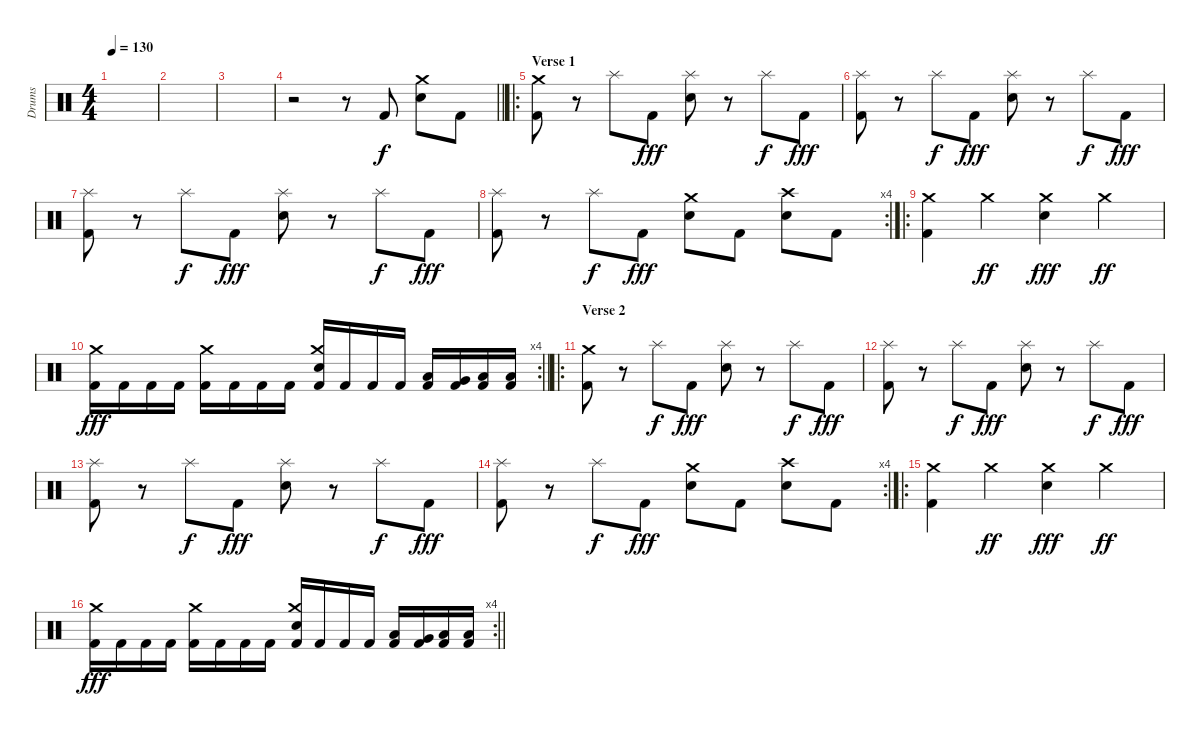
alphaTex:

\track ("Drums" "Drums") {instrument percussion}
\staff {score}
\articulation defaults
\ts (4 4)
\tempo 130
\clef neutral
\ks c
|
|
|
\barLineRight lightlight
r.2 r.8 "Kick (hit) 2".8 ("Crash medium (hit)" "Electric Snare (hit)").8 "Kick (hit) 2".8 |
\ro
\section ("" "Verse 1")
("Crash medium (hit)" "Kick (hit) 2").8 r.8 "Splash (hit)".8{dy f} "Kick (hit) 2".8{dy fff} ("Splash (hit)" "Electric Snare (hit)").8 r.8 "Splash (hit)".8{dy f} "Kick (hit) 2".8{dy fff} |
("Splash (hit)" "Kick (hit) 2").8 r.8 "Splash (hit)".8{dy f} "Kick (hit) 2".8{dy fff} ("Splash (hit)" "Electric Snare (hit)").8 r.8 "Splash (hit)".8{dy f} "Kick (hit) 2".8{dy fff} |
("Splash (hit)" "Kick (hit) 2").8 r.8 "Splash (hit)".8{dy f} "Kick (hit) 2".8{dy fff} ("Splash (hit)" "Electric Snare (hit)").8 r.8 "Splash (hit)".8{dy f} "Kick (hit) 2".8{dy fff} |
\rc 4
("Splash (hit)" "Kick (hit) 2").8 r.8 "Splash (hit)".8{dy f} "Kick (hit) 2".8{dy fff} ("Crash medium (hit)" "Electric Snare (hit)").8 "Kick (hit) 2".8 ("Crash high (hit)" "Electric Snare (hit)").8 "Kick (hit) 2".8 |
\ro
("Crash medium (hit)" "Kick (hit) 2").4 "Crash medium (hit)".4{dy ff} ("Crash medium (hit)" "Electric Snare (hit)").4{dy fff} "Crash medium (hit)".4{dy ff} |
\rc 4
\barLineRight lightlight
("Crash medium (hit)" "Kick (hit) 2").16{dy fff} "Kick (hit) 2".16 "Kick (hit) 2".16 "Kick (hit) 2".16 ("Crash medium (hit)" "Kick (hit) 2").16 "Kick (hit) 2".16 "Kick (hit) 2".16 "Kick (hit) 2".16 ("Crash medium (hit)" "Electric Snare (hit)" "Kick (hit) 2").16 "Kick (hit) 2".16 "Kick (hit) 2".16 "Kick (hit) 2".16 ("Low Tom (hit)" "Kick (hit) 2").16 ("Very Low Tom (hit)" "Kick (hit) 2").16 ("Low Tom (hit)" "Kick (hit) 2").16 ("Low Floor Tom (hit)" "Kick (hit) 2").16 |
\ro
\section ("" "Verse 2")
("Crash medium (hit)" "Kick (hit) 2").8 r.8 "Splash (hit)".8{dy f} "Kick (hit) 2".8{dy fff} ("Splash (hit)" "Electric Snare (hit)").8 r.8 "Splash (hit)".8{dy f} "Kick (hit) 2".8{dy fff} |
("Splash (hit)" "Kick (hit) 2").8 r.8 "Splash (hit)".8{dy f} "Kick (hit) 2".8{dy fff} ("Splash (hit)" "Electric Snare (hit)").8 r.8 "Splash (hit)".8{dy f} "Kick (hit) 2".8{dy fff} |
("Splash (hit)" "Kick (hit) 2").8 r.8 "Splash (hit)".8{dy f} "Kick (hit) 2".8{dy fff} ("Splash (hit)" "Electric Snare (hit)").8 r.8 "Splash (hit)".8{dy f} "Kick (hit) 2".8{dy fff} |
\rc 4
("Splash (hit)" "Kick (hit) 2").8 r.8 "Splash (hit)".8{dy f} "Kick (hit) 2".8{dy fff} ("Crash medium (hit)" "Electric Snare (hit)").8 "Kick (hit) 2".8 ("Crash high (hit)" "Electric Snare (hit)").8 "Kick (hit) 2".8 |
\ro
("Crash medium (hit)" "Kick (hit) 2").4 "Crash medium (hit)".4{dy ff} ("Crash medium (hit)" "Electric Snare (hit)").4{dy fff} "Crash medium (hit)".4{dy ff} |
\rc 4
\barLineRight lightlight
("Crash medium (hit)" "Kick (hit) 2").16{dy fff} "Kick (hit) 2".16 "Kick (hit) 2".16 "Kick (hit) 2".16 ("Crash medium (hit)" "Kick (hit) 2").16 "Kick (hit) 2".16 "Kick (hit) 2".16 "Kick (hit) 2".16 ("Crash medium (hit)" "Electric Snare (hit)" "Kick (hit) 2").16 "Kick (hit) 2".16 "Kick (hit) 2".16 "Kick (hit) 2".16 ("Low Tom (hit)" "Kick (hit) 2").16 ("Very Low Tom (hit)" "Kick (hit) 2").16 ("Low Tom (hit)" "Kick (hit) 2").16 ("Low Floor Tom (hit)" "Kick (hit) 2").16
